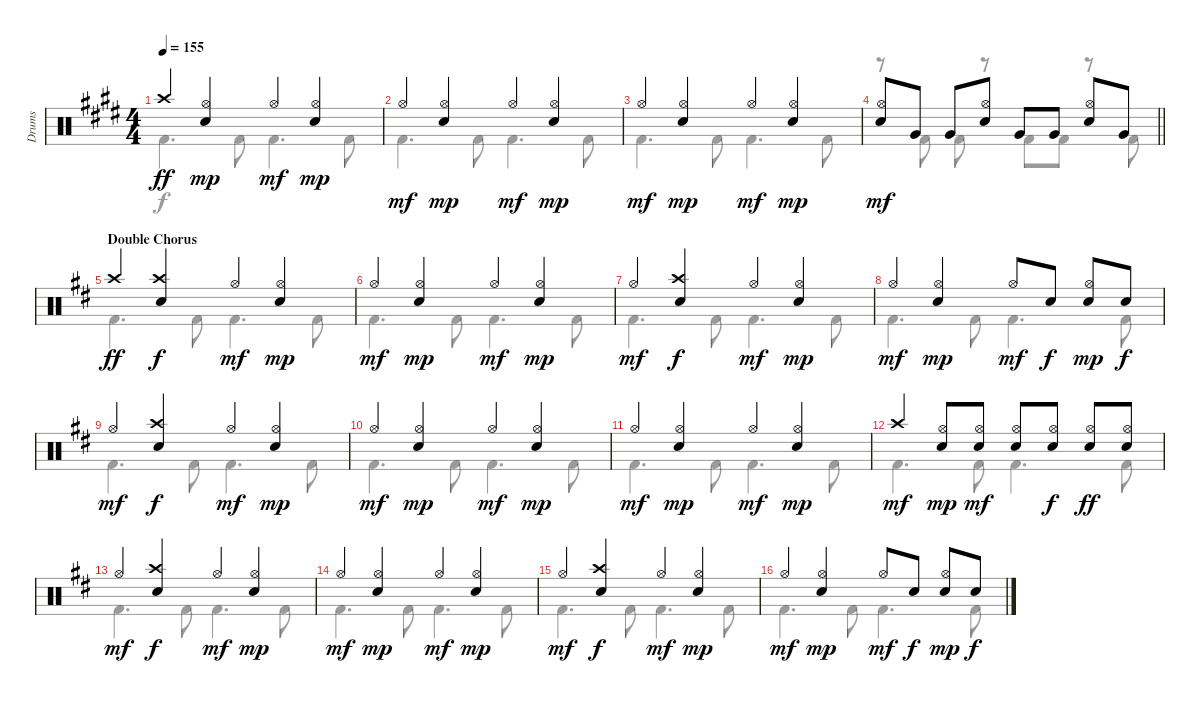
\track ("Drums" "Drums") {instrument percussion}
\staff {score}
\articulation defaults
\voice
\ts (4 4)
\tempo 155
\clef neutral
\ks e "Crash high (hit)".4{dy ff}
("Hi-Hat (open)" "Electric Snare (hit)").4{dy mp} "Hi-Hat (open)".4{dy mf} ("Hi-Hat (open)" "Electric Snare (hit)").4{dy mp} |
"Hi-Hat (open)".4{dy mf} ("Hi-Hat (open)" "Electric Snare (hit)").4{dy mp} "Hi-Hat (open)".4{dy mf} ("Hi-Hat (open)" "Electric Snare (hit)").4{dy mp} |
"Hi-Hat (open)".4{dy mf} ("Hi-Hat (open)" "Electric Snare (hit)").4{dy mp} "Hi-Hat (open)".4{dy mf} ("Hi-Hat (open)" "Electric Snare (hit)").4{dy mp} |
\barLineRight lightlight
("Hi-Hat (open)" "Electric Snare (hit)").8{dy mf} "Very Low Tom (hit)".8 "Very Low Tom (hit)".8 ("Hi-Hat (open)" "Electric Snare (hit)").8 "Very Low Tom (hit)".8 "Very Low Tom (hit)".8 ("Hi-Hat (open)" "Electric Snare (hit)").8 "Very Low Tom (hit)".8 |
\section ("" "Double Chorus")
\ks d "Crash high (hit)".4{dy ff}
("Crash high (hit)" "Electric Snare (hit)").4{dy f} "Hi-Hat (open)".4{dy mf} ("Hi-Hat (open)" "Electric Snare (hit)").4{dy mp} |
"Hi-Hat (open)".4{dy mf} ("Hi-Hat (open)" "Electric Snare (hit)").4{dy mp} "Hi-Hat (open)".4{dy mf} ("Hi-Hat (open)" "Electric Snare (hit)").4{dy mp} |
"Hi-Hat (open)".4{dy mf} ("Crash high (hit)" "Electric Snare (hit)").4{dy f} "Hi-Hat (open)".4{dy mf} ("Hi-Hat (open)" "Electric Snare (hit)").4{dy mp} |
"Hi-Hat (open)".4{dy mf} ("Hi-Hat (open)" "Electric Snare (hit)").4{dy mp} "Hi-Hat (open)".8{dy mf} "Electric Snare (hit)".8{dy f} ("Hi-Hat (open)" "Electric Snare (hit)").8{dy mp} "Electric Snare (hit)".8{dy f} |
"Hi-Hat (open)".4{dy mf} ("Crash high (hit)" "Electric Snare (hit)").4{dy f} "Hi-Hat (open)".4{dy mf} ("Hi-Hat (open)" "Electric Snare (hit)").4{dy mp} |
"Hi-Hat (open)".4{dy mf} ("Hi-Hat (open)" "Electric Snare (hit)").4{dy mp} "Hi-Hat (open)".4{dy mf} ("Hi-Hat (open)" "Electric Snare (hit)").4{dy mp} |
"Hi-Hat (open)".4{dy mf} ("Hi-Hat (open)" "Electric Snare (hit)").4{dy mp} "Hi-Hat (open)".4{dy mf} ("Hi-Hat (open)" "Electric Snare (hit)").4{dy mp} |
"Crash high (hit)".4{dy mf} ("Hi-Hat (open)" "Electric Snare (hit)").8{dy mp} ("Hi-Hat (open)" "Electric Snare (hit)").8{dy mf} ("Hi-Hat (open)" "Electric Snare (hit)").8 ("Hi-Hat (open)" "Electric Snare (hit)").8{dy f} ("Hi-Hat (open)" "Electric Snare (hit)").8{dy ff} ("Hi-Hat (open)" "Electric Snare (hit)").8 |
"Hi-Hat (open)".4{dy mf} ("Crash high (hit)" "Electric Snare (hit)").4{dy f} "Hi-Hat (open)".4{dy mf} ("Hi-Hat (open)" "Electric Snare (hit)").4{dy mp} |
"Hi-Hat (open)".4{dy mf} ("Hi-Hat (open)" "Electric Snare (hit)").4{dy mp} "Hi-Hat (open)".4{dy mf} ("Hi-Hat (open)" "Electric Snare (hit)").4{dy mp} |
"Hi-Hat (open)".4{dy mf} ("Crash high (hit)" "Electric Snare (hit)").4{dy f} "Hi-Hat (open)".4{dy mf} ("Hi-Hat (open)" "Electric Snare (hit)").4{dy mp} |
"Hi-Hat (open)".4{dy mf} ("Hi-Hat (open)" "Electric Snare (hit)").4{dy mp} "Hi-Hat (open)".8{dy mf} "Electric Snare (hit)".8{dy f} ("Hi-Hat (open)" "Electric Snare (hit)").8{dy mp} "Electric Snare (hit)".8{dy f}
\voice
\clef neutral
\ottava regular
\simile none
\ks e "Kick (hit) 2".4{d dy f} "Kick (hit) 2".8 "Kick (hit) 2".4{d} "Kick (hit) 2".8
|
"Kick (hit) 2".4{d} "Kick (hit) 2".8 "Kick (hit) 2".4{d} "Kick (hit) 2".8 |
"Kick (hit) 2".4{d} "Kick (hit) 2".8 "Kick (hit) 2".4{d} "Kick (hit) 2".8 |
\barLineRight lightlight
r.8 "Kick (hit) 2".8 "Kick (hit) 2".8 r.8 "Kick (hit) 2".8 "Kick (hit) 2".8 r.8 "Kick (hit) 2".8 |
\ks d "Kick (hit) 2".4{d} "Kick (hit) 2".8 "Kick (hit) 2".4{d} "Kick (hit) 2".8
|
"Kick (hit) 2".4{d} "Kick (hit) 2".8 "Kick (hit) 2".4{d} "Kick (hit) 2".8 |
"Kick (hit) 2".4{d} "Kick (hit) 2".8 "Kick (hit) 2".4{d} "Kick (hit) 2".8 |
"Kick (hit) 2".4{d} "Kick (hit) 2".8 "Kick (hit) 2".4{d} "Kick (hit) 2".8 |
"Kick (hit) 2".4{d} "Kick (hit) 2".8 "Kick (hit) 2".4{d} "Kick (hit) 2".8 |
"Kick (hit) 2".4{d} "Kick (hit) 2".8 "Kick (hit) 2".4{d} "Kick (hit) 2".8 |
"Kick (hit) 2".4{d} "Kick (hit) 2".8 "Kick (hit) 2".4{d} "Kick (hit) 2".8 |
"Kick (hit) 2".4{d} "Kick (hit) 2".8 "Kick (hit) 2".4{d} "Kick (hit) 2".8 |
"Kick (hit) 2".4{d} "Kick (hit) 2".8 "Kick (hit) 2".4{d} "Kick (hit) 2".8 |
"Kick (hit) 2".4{d} "Kick (hit) 2".8 "Kick (hit) 2".4{d} "Kick (hit) 2".8 |
"Kick (hit) 2".4{d} "Kick (hit) 2".8 "Kick (hit) 2".4{d} "Kick (hit) 2".8 |
"Kick (hit) 2".4{d} "Kick (hit) 2".8 "Kick (hit) 2".4{d} "Kick (hit) 2".8
